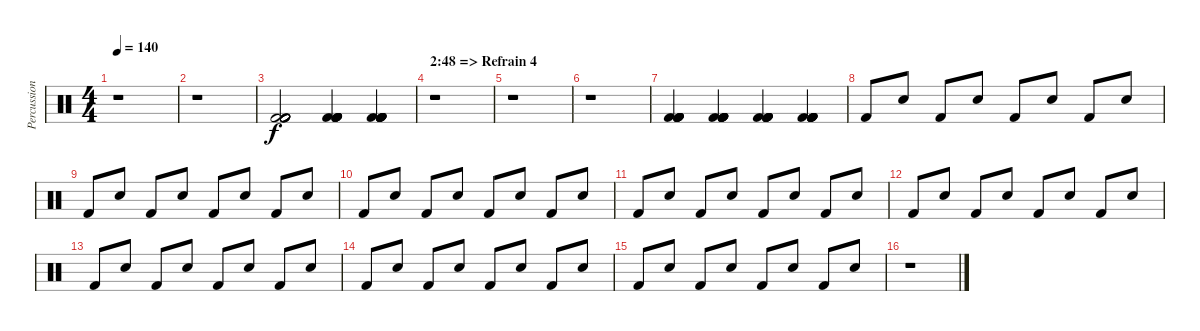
\track ("Percussions" "Percussion") {instrument percussion}
\staff {score}
\articulation defaults
\ts (4 4)
\tempo 140
\clef neutral
\ks c
r.1{dy f} |
r.1 |
("Kick (hit) 2" "Kick (hit) 2" "Kick (hit) 2" "Kick (hit) 2" "Kick (hit) 2" "Kick (hit) 2").2 ("Kick (hit) 2" "Kick (hit) 2" "Kick (hit) 2" "Kick (hit) 2" "Kick (hit) 2" "Kick (hit) 2").4 ("Kick (hit) 2" "Kick (hit) 2" "Kick (hit) 2" "Kick (hit) 2" "Kick (hit) 2" "Kick (hit) 2").4 |
\section ("" "2:48 => Refrain 4")
r.1 |
r.1 |
r.1 |
("Kick (hit) 2" "Kick (hit) 2" "Kick (hit) 2" "Kick (hit) 2" "Kick (hit) 2" "Kick (hit) 2").4 ("Kick (hit) 2" "Kick (hit) 2" "Kick (hit) 2" "Kick (hit) 2" "Kick (hit) 2" "Kick (hit) 2").4 ("Kick (hit) 2" "Kick (hit) 2" "Kick (hit) 2" "Kick (hit) 2" "Kick (hit) 2" "Kick (hit) 2").4 ("Kick (hit) 2" "Kick (hit) 2" "Kick (hit) 2" "Kick (hit) 2" "Kick (hit) 2" "Kick (hit) 2").4 |
"Kick (hit) 2".8 "Snare (hit) 2".8 "Kick (hit) 2".8 "Snare (hit) 2".8 "Kick (hit) 2".8 "Snare (hit) 2".8 "Kick (hit) 2".8 "Snare (hit) 2".8 |
"Kick (hit) 2".8 "Snare (hit) 2".8 "Kick (hit) 2".8 "Snare (hit) 2".8 "Kick (hit) 2".8 "Snare (hit) 2".8 "Kick (hit) 2".8 "Snare (hit) 2".8 |
"Kick (hit) 2".8 "Snare (hit) 2".8 "Kick (hit) 2".8 "Snare (hit) 2".8 "Kick (hit) 2".8 "Snare (hit) 2".8 "Kick (hit) 2".8 "Snare (hit) 2".8 |
"Kick (hit) 2".8 "Snare (hit) 2".8 "Kick (hit) 2".8 "Snare (hit) 2".8 "Kick (hit) 2".8 "Snare (hit) 2".8 "Kick (hit) 2".8 "Snare (hit) 2".8 |
"Kick (hit) 2".8 "Snare (hit) 2".8 "Kick (hit) 2".8 "Snare (hit) 2".8 "Kick (hit) 2".8 "Snare (hit) 2".8 "Kick (hit) 2".8 "Snare (hit) 2".8 |
"Kick (hit) 2".8 "Snare (hit) 2".8 "Kick (hit) 2".8 "Snare (hit) 2".8 "Kick (hit) 2".8 "Snare (hit) 2".8 "Kick (hit) 2".8 "Snare (hit) 2".8 |
"Kick (hit) 2".8 "Snare (hit) 2".8 "Kick (hit) 2".8 "Snare (hit) 2".8 "Kick (hit) 2".8 "Snare (hit) 2".8 "Kick (hit) 2".8 "Snare (hit) 2".8 |
"Kick (hit) 2".8 "Snare (hit) 2".8 "Kick (hit) 2".8 "Snare (hit) 2".8 "Kick (hit) 2".8 "Snare (hit) 2".8 "Kick (hit) 2".8 "Snare (hit) 2".8 |
r.1
